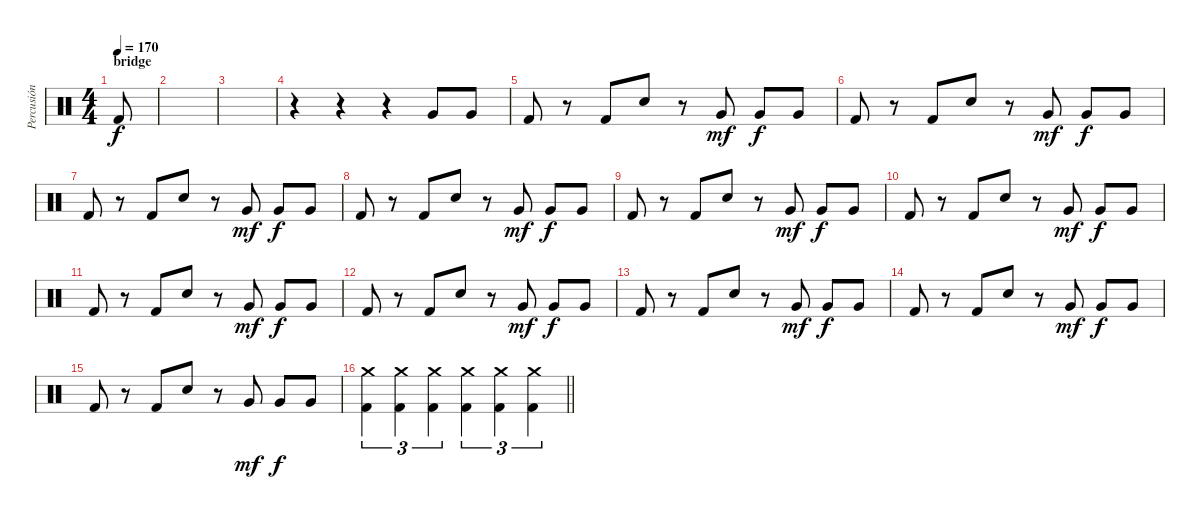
\track ("Percusión" "Percusión") {instrument percussion}
\staff {score}
\articulation defaults
\ts (4 4)
\section ("" "bridge")
\tempo 170
\clef neutral
\ks c "Kick (hit) 2".8{dy f}
|
|
|
r.4 r.4 r.4 "Very Low Tom (hit)".8 "Very Low Tom (hit)".8 |
"Kick (hit) 2".8 r.8 "Kick (hit) 2".8 "Electric Snare (hit)".8 r.8 "Very Low Tom (hit)".8{dy mf} "Very Low Tom (hit)".8{dy f} "Very Low Tom (hit)".8 |
"Kick (hit) 2".8 r.8 "Kick (hit) 2".8 "Electric Snare (hit)".8 r.8 "Very Low Tom (hit)".8{dy mf} "Very Low Tom (hit)".8{dy f} "Very Low Tom (hit)".8 |
"Kick (hit) 2".8 r.8 "Kick (hit) 2".8 "Electric Snare (hit)".8 r.8 "Very Low Tom (hit)".8{dy mf} "Very Low Tom (hit)".8{dy f} "Very Low Tom (hit)".8 |
"Kick (hit) 2".8 r.8 "Kick (hit) 2".8 "Electric Snare (hit)".8 r.8 "Very Low Tom (hit)".8{dy mf} "Very Low Tom (hit)".8{dy f} "Very Low Tom (hit)".8 |
"Kick (hit) 2".8 r.8 "Kick (hit) 2".8 "Electric Snare (hit)".8 r.8 "Very Low Tom (hit)".8{dy mf} "Very Low Tom (hit)".8{dy f} "Very Low Tom (hit)".8 |
"Kick (hit) 2".8 r.8 "Kick (hit) 2".8 "Electric Snare (hit)".8 r.8 "Very Low Tom (hit)".8{dy mf} "Very Low Tom (hit)".8{dy f} "Very Low Tom (hit)".8 |
"Kick (hit) 2".8 r.8 "Kick (hit) 2".8 "Electric Snare (hit)".8 r.8 "Very Low Tom (hit)".8{dy mf} "Very Low Tom (hit)".8{dy f} "Very Low Tom (hit)".8 |
"Kick (hit) 2".8 r.8 "Kick (hit) 2".8 "Electric Snare (hit)".8 r.8 "Very Low Tom (hit)".8{dy mf} "Very Low Tom (hit)".8{dy f} "Very Low Tom (hit)".8 |
"Kick (hit) 2".8 r.8 "Kick (hit) 2".8 "Electric Snare (hit)".8 r.8 "Very Low Tom (hit)".8{dy mf} "Very Low Tom (hit)".8{dy f} "Very Low Tom (hit)".8 |
"Kick (hit) 2".8 r.8 "Kick (hit) 2".8 "Electric Snare (hit)".8 r.8 "Very Low Tom (hit)".8{dy mf} "Very Low Tom (hit)".8{dy f} "Very Low Tom (hit)".8 |
"Kick (hit) 2".8 r.8 "Kick (hit) 2".8 "Electric Snare (hit)".8 r.8 "Very Low Tom (hit)".8{dy mf} "Very Low Tom (hit)".8{dy f} "Very Low Tom (hit)".8 |
\barLineRight lightlight
("Crash medium (hit)" "Kick (hit) 2").4{tu (3 2)} ("Crash medium (hit)" "Kick (hit) 2").4{tu (3 2)} ("Crash medium (hit)" "Kick (hit) 2").4{tu (3 2)} ("Crash medium (hit)" "Kick (hit) 2").4{tu (3 2)} ("Crash medium (hit)" "Kick (hit) 2").4{tu (3 2)} ("Crash medium (hit)" "Kick (hit) 2").4{tu (3 2)}
